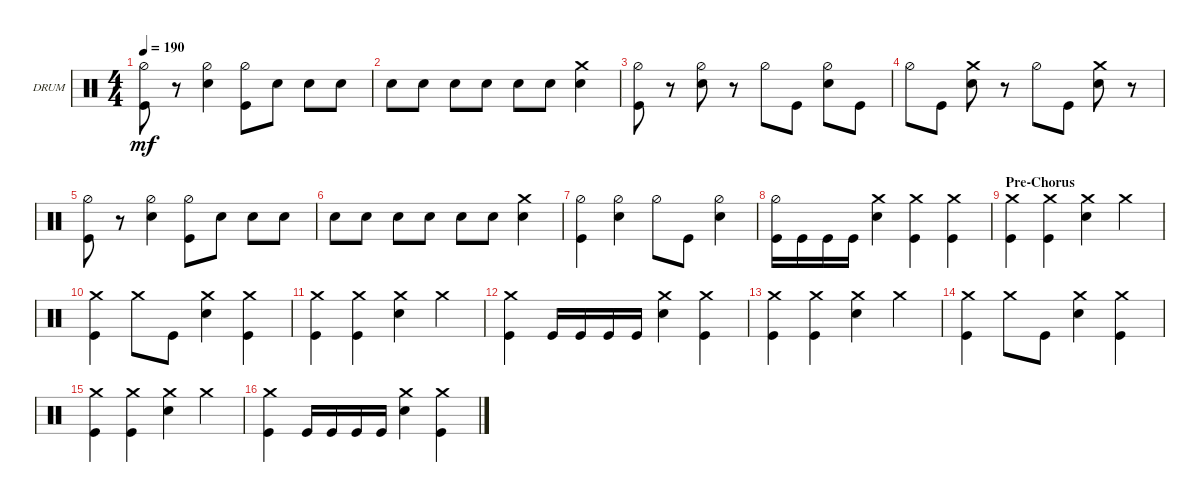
\defaultSystemsLayout 4
\bracketExtendMode groupsimilarinstruments
\firstSystemTrackNameOrientation horizontal
\otherSystemsTrackNameOrientation horizontal
\track ("Drums" "DRUM") {instrument percussion}
\staff {score}
\articulation defaults
\ts (4 4)
\tempo 190
\clef neutral
\ks c
("Kick (hit)" "Hi-Hat (half)").8{dy mf} r.8 ("Snare (hit) 2" "Hi-Hat (half)").4 ("Kick (hit)" "Hi-Hat (half)").8 "Snare (hit) 2".8 "Snare (hit) 2".8 "Snare (hit) 2".8 |
"Snare (hit) 2".8 "Snare (hit) 2".8 "Snare (hit) 2".8 "Snare (hit) 2".8 "Snare (hit) 2".8 "Snare (hit) 2".8 ("Snare (hit) 2" "Crash medium (hit)").4 |
("Kick (hit)" "Hi-Hat (half)").8 r.8 ("Snare (hit) 2" "Hi-Hat (half)").8 r.8 "Hi-Hat (half)".8 "Kick (hit)".8 ("Snare (hit) 2" "Hi-Hat (half)").8 "Kick (hit)".8 |
"Hi-Hat (half)".8 "Kick (hit)".8 ("Snare (hit) 2" "Crash medium (hit)").8 r.8 "Hi-Hat (half)".8 "Kick (hit)".8 ("Snare (hit) 2" "Crash medium (hit)").8 r.8 |
("Kick (hit)" "Hi-Hat (half)").8 r.8 ("Snare (hit) 2" "Hi-Hat (half)").4 ("Kick (hit)" "Hi-Hat (half)").8 "Snare (hit) 2".8 "Snare (hit) 2".8 "Snare (hit) 2".8 |
"Snare (hit) 2".8 "Snare (hit) 2".8 "Snare (hit) 2".8 "Snare (hit) 2".8 "Snare (hit) 2".8 "Snare (hit) 2".8 ("Snare (hit) 2" "Crash medium (hit)").4 |
("Kick (hit)" "Hi-Hat (half)").4 ("Snare (hit) 2" "Hi-Hat (half)").4 "Hi-Hat (half)".8 "Kick (hit)".8 ("Snare (hit) 2" "Hi-Hat (half)").4 |
("Hi-Hat (half)" "Kick (hit)").16 "Kick (hit)".16 "Kick (hit)".16 "Kick (hit)".16 ("Snare (hit) 2" "Crash medium (hit)").4 ("Kick (hit)" "Crash medium (hit)").4 ("Crash medium (hit)" "Kick (hit)").4 |
\section ("" "Pre-Chorus")
("Crash medium (hit)" "Kick (hit)").4 ("Kick (hit)" "Crash medium (hit)").4 ("Snare (hit) 2" "Crash medium (hit)").4 "Crash medium (hit)".4 |
("Kick (hit)" "Crash medium (hit)").4 "Crash medium (hit)".8 "Kick (hit)".8 ("Snare (hit) 2" "Crash medium (hit)").4 ("Crash medium (hit)" "Kick (hit)").4 |
("Crash medium (hit)" "Kick (hit)").4 ("Kick (hit)" "Crash medium (hit)").4 ("Snare (hit) 2" "Crash medium (hit)").4 "Crash medium (hit)".4 |
("Crash medium (hit)" "Kick (hit)").4 "Kick (hit)".16 "Kick (hit)".16 "Kick (hit)".16 "Kick (hit)".16 ("Crash medium (hit)" "Snare (hit) 2").4 ("Kick (hit)" "Crash medium (hit)").4 |
("Kick (hit)" "Crash medium (hit)").4 ("Kick (hit)" "Crash medium (hit)").4 ("Snare (hit) 2" "Crash medium (hit)").4 "Crash medium (hit)".4 |
("Kick (hit)" "Crash medium (hit)").4 "Crash medium (hit)".8 "Kick (hit)".8 ("Snare (hit) 2" "Crash medium (hit)").4 ("Kick (hit)" "Crash medium (hit)").4 |
("Crash medium (hit)" "Kick (hit)").4 ("Kick (hit)" "Crash medium (hit)").4 ("Snare (hit) 2" "Crash medium (hit)").4 "Crash medium (hit)".4 |
("Crash medium (hit)" "Kick (hit)").4 "Kick (hit)".16 "Kick (hit)".16 "Kick (hit)".16 "Kick (hit)".16 ("Crash medium (hit)" "Snare (hit) 2").4 ("Kick (hit)" "Crash medium (hit)").4
